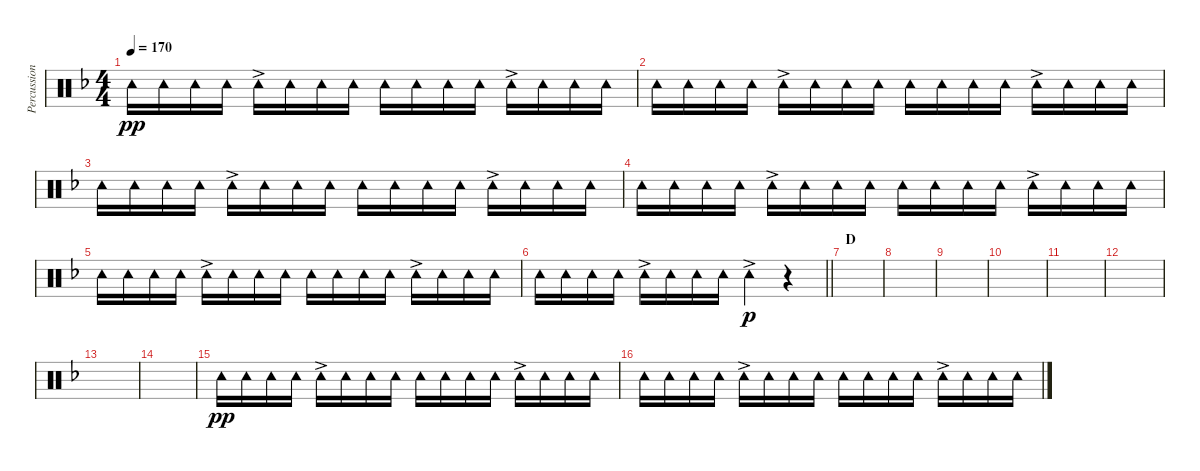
\track ("Percussion (Tainaka Ritsu)" "Percussion") {instrument percussion}
\staff {score}
\articulation defaults
\ts (4 4)
\tempo 170
\clef neutral
\ks f "Tambourine (hit)".16{dy pp} "Tambourine (hit)".16 "Tambourine (hit)".16 "Tambourine (hit)".16 "Tambourine (hit)"{ac}.16 "Tambourine (hit)".16 "Tambourine (hit)".16 "Tambourine (hit)".16 "Tambourine (hit)".16 "Tambourine (hit)".16 "Tambourine (hit)".16 "Tambourine (hit)".16 "Tambourine (hit)"{ac}.16 "Tambourine (hit)".16 "Tambourine (hit)".16 "Tambourine (hit)".16
|
"Tambourine (hit)".16 "Tambourine (hit)".16 "Tambourine (hit)".16 "Tambourine (hit)".16 "Tambourine (hit)"{ac}.16 "Tambourine (hit)".16 "Tambourine (hit)".16 "Tambourine (hit)".16 "Tambourine (hit)".16 "Tambourine (hit)".16 "Tambourine (hit)".16 "Tambourine (hit)".16 "Tambourine (hit)"{ac}.16 "Tambourine (hit)".16 "Tambourine (hit)".16 "Tambourine (hit)".16 |
"Tambourine (hit)".16 "Tambourine (hit)".16 "Tambourine (hit)".16 "Tambourine (hit)".16 "Tambourine (hit)"{ac}.16 "Tambourine (hit)".16 "Tambourine (hit)".16 "Tambourine (hit)".16 "Tambourine (hit)".16 "Tambourine (hit)".16 "Tambourine (hit)".16 "Tambourine (hit)".16 "Tambourine (hit)"{ac}.16 "Tambourine (hit)".16 "Tambourine (hit)".16 "Tambourine (hit)".16 |
"Tambourine (hit)".16 "Tambourine (hit)".16 "Tambourine (hit)".16 "Tambourine (hit)".16 "Tambourine (hit)"{ac}.16 "Tambourine (hit)".16 "Tambourine (hit)".16 "Tambourine (hit)".16 "Tambourine (hit)".16 "Tambourine (hit)".16 "Tambourine (hit)".16 "Tambourine (hit)".16 "Tambourine (hit)"{ac}.16 "Tambourine (hit)".16 "Tambourine (hit)".16 "Tambourine (hit)".16 |
"Tambourine (hit)".16 "Tambourine (hit)".16 "Tambourine (hit)".16 "Tambourine (hit)".16 "Tambourine (hit)"{ac}.16 "Tambourine (hit)".16 "Tambourine (hit)".16 "Tambourine (hit)".16 "Tambourine (hit)".16 "Tambourine (hit)".16 "Tambourine (hit)".16 "Tambourine (hit)".16 "Tambourine (hit)"{ac}.16 "Tambourine (hit)".16 "Tambourine (hit)".16 "Tambourine (hit)".16 |
\barLineRight lightlight "Tambourine (hit)".16 "Tambourine (hit)".16 "Tambourine (hit)".16 "Tambourine (hit)".16 "Tambourine (hit)"{ac}.16 "Tambourine (hit)".16 "Tambourine (hit)".16 "Tambourine (hit)".16 "Tambourine (hit)"{ac}.4{dy p}
r.4 |
\section ("" "D")
|
|
|
|
|
|
|
|
"Tambourine (hit)".16{dy pp} "Tambourine (hit)".16 "Tambourine (hit)".16 "Tambourine (hit)".16 "Tambourine (hit)"{ac}.16 "Tambourine (hit)".16 "Tambourine (hit)".16 "Tambourine (hit)".16 "Tambourine (hit)".16 "Tambourine (hit)".16 "Tambourine (hit)".16 "Tambourine (hit)".16 "Tambourine (hit)"{ac}.16 "Tambourine (hit)".16 "Tambourine (hit)".16 "Tambourine (hit)".16 |
"Tambourine (hit)".16 "Tambourine (hit)".16 "Tambourine (hit)".16 "Tambourine (hit)".16 "Tambourine (hit)"{ac}.16 "Tambourine (hit)".16 "Tambourine (hit)".16 "Tambourine (hit)".16 "Tambourine (hit)".16 "Tambourine (hit)".16 "Tambourine (hit)".16 "Tambourine (hit)".16 "Tambourine (hit)"{ac}.16 "Tambourine (hit)".16 "Tambourine (hit)".16 "Tambourine (hit)".16
